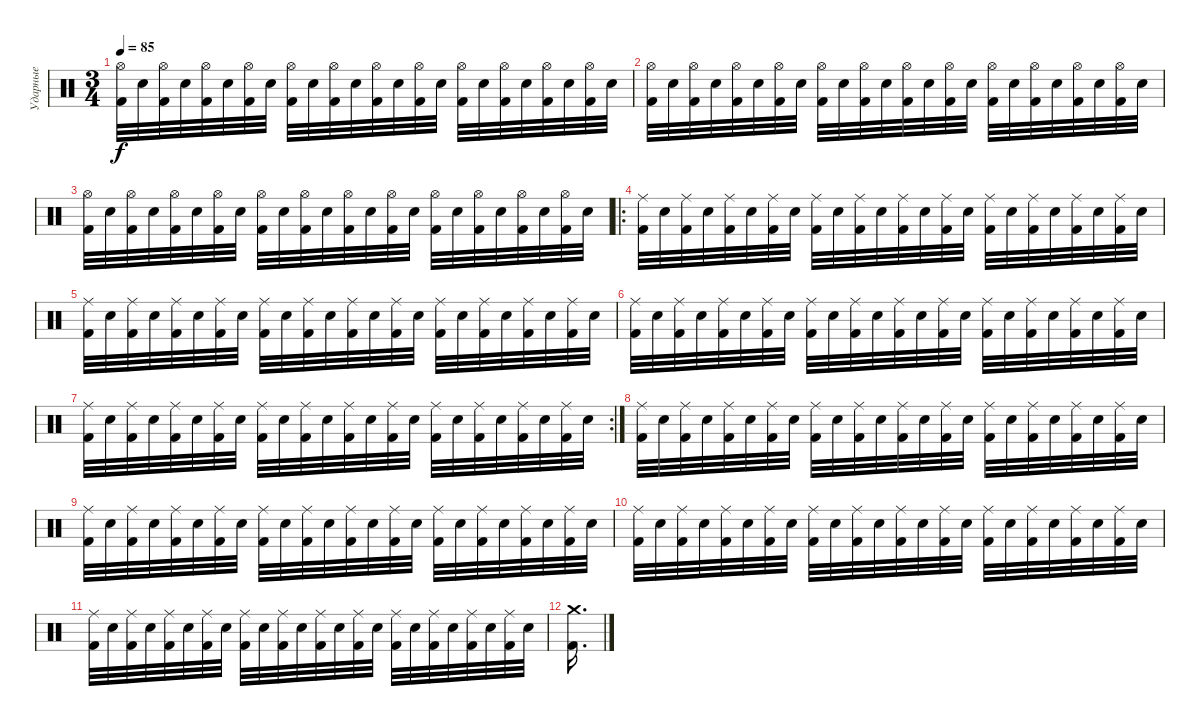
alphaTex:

\track ("Ударные" "Ударные") {instrument percussion}
\staff {score}
\articulation defaults
\ts (3 4)
\tempo 85
\clef neutral
\ks c
("Kick (hit) 2" "Hi-Hat (open)").32{dy f} "Electric Snare (hit)".32 ("Kick (hit) 2" "Hi-Hat (open)").32 "Electric Snare (hit)".32 ("Kick (hit) 2" "Hi-Hat (open)").32 "Electric Snare (hit)".32 ("Kick (hit) 2" "Hi-Hat (open)").32 "Electric Snare (hit)".32 ("Kick (hit) 2" "Hi-Hat (open)").32 "Electric Snare (hit)".32 ("Kick (hit) 2" "Hi-Hat (open)").32 "Electric Snare (hit)".32 ("Kick (hit) 2" "Hi-Hat (open)").32 "Electric Snare (hit)".32 ("Kick (hit) 2" "Hi-Hat (open)").32 "Electric Snare (hit)".32 ("Kick (hit) 2" "Hi-Hat (open)").32 "Electric Snare (hit)".32 ("Kick (hit) 2" "Hi-Hat (open)").32 "Electric Snare (hit)".32 ("Kick (hit) 2" "Hi-Hat (open)").32 "Electric Snare (hit)".32 ("Kick (hit) 2" "Hi-Hat (open)").32 "Electric Snare (hit)".32 |
("Kick (hit) 2" "Hi-Hat (open)").32 "Electric Snare (hit)".32 ("Kick (hit) 2" "Hi-Hat (open)").32 "Electric Snare (hit)".32 ("Kick (hit) 2" "Hi-Hat (open)").32 "Electric Snare (hit)".32 ("Kick (hit) 2" "Hi-Hat (open)").32 "Electric Snare (hit)".32 ("Kick (hit) 2" "Hi-Hat (open)").32 "Electric Snare (hit)".32 ("Kick (hit) 2" "Hi-Hat (open)").32 "Electric Snare (hit)".32 ("Kick (hit) 2" "Hi-Hat (open)").32 "Electric Snare (hit)".32 ("Kick (hit) 2" "Hi-Hat (open)").32 "Electric Snare (hit)".32 ("Kick (hit) 2" "Hi-Hat (open)").32 "Electric Snare (hit)".32 ("Kick (hit) 2" "Hi-Hat (open)").32 "Electric Snare (hit)".32 ("Kick (hit) 2" "Hi-Hat (open)").32 "Electric Snare (hit)".32 ("Kick (hit) 2" "Hi-Hat (open)").32 "Electric Snare (hit)".32 |
("Kick (hit) 2" "Hi-Hat (open)").32 "Electric Snare (hit)".32 ("Kick (hit) 2" "Hi-Hat (open)").32 "Electric Snare (hit)".32 ("Kick (hit) 2" "Hi-Hat (open)").32 "Electric Snare (hit)".32 ("Kick (hit) 2" "Hi-Hat (open)").32 "Electric Snare (hit)".32 ("Kick (hit) 2" "Hi-Hat (open)").32 "Electric Snare (hit)".32 ("Kick (hit) 2" "Hi-Hat (open)").32 "Electric Snare (hit)".32 ("Kick (hit) 2" "Hi-Hat (open)").32 "Electric Snare (hit)".32 ("Kick (hit) 2" "Hi-Hat (open)").32 "Electric Snare (hit)".32 ("Kick (hit) 2" "Hi-Hat (open)").32 "Electric Snare (hit)".32 ("Kick (hit) 2" "Hi-Hat (open)").32 "Electric Snare (hit)".32 ("Kick (hit) 2" "Hi-Hat (open)").32 "Electric Snare (hit)".32 ("Kick (hit) 2" "Hi-Hat (open)").32 "Electric Snare (hit)".32 |
\ro
("Kick (hit) 2" "Ride (middle)").32 "Electric Snare (hit)".32 ("Kick (hit) 2" "Ride (middle)").32 "Electric Snare (hit)".32 ("Kick (hit) 2" "Ride (middle)").32 "Electric Snare (hit)".32 ("Kick (hit) 2" "Ride (middle)").32 "Electric Snare (hit)".32 ("Kick (hit) 2" "Ride (middle)").32 "Electric Snare (hit)".32 ("Kick (hit) 2" "Ride (middle)").32 "Electric Snare (hit)".32 ("Kick (hit) 2" "Ride (middle)").32 "Electric Snare (hit)".32 ("Kick (hit) 2" "Ride (middle)").32 "Electric Snare (hit)".32 ("Kick (hit) 2" "Ride (middle)").32 "Electric Snare (hit)".32 ("Kick (hit) 2" "Ride (middle)").32 "Electric Snare (hit)".32 ("Kick (hit) 2" "Ride (middle)").32 "Electric Snare (hit)".32 ("Kick (hit) 2" "Ride (middle)").32 "Electric Snare (hit)".32 |
("Kick (hit) 2" "Ride (middle)").32 "Electric Snare (hit)".32 ("Kick (hit) 2" "Ride (middle)").32 "Electric Snare (hit)".32 ("Kick (hit) 2" "Ride (middle)").32 "Electric Snare (hit)".32 ("Kick (hit) 2" "Ride (middle)").32 "Electric Snare (hit)".32 ("Kick (hit) 2" "Ride (middle)").32 "Electric Snare (hit)".32 ("Kick (hit) 2" "Ride (middle)").32 "Electric Snare (hit)".32 ("Kick (hit) 2" "Ride (middle)").32 "Electric Snare (hit)".32 ("Kick (hit) 2" "Ride (middle)").32 "Electric Snare (hit)".32 ("Kick (hit) 2" "Ride (middle)").32 "Electric Snare (hit)".32 ("Kick (hit) 2" "Ride (middle)").32 "Electric Snare (hit)".32 ("Kick (hit) 2" "Ride (middle)").32 "Electric Snare (hit)".32 ("Kick (hit) 2" "Ride (middle)").32 "Electric Snare (hit)".32 |
("Kick (hit) 2" "Ride (middle)").32 "Electric Snare (hit)".32 ("Kick (hit) 2" "Ride (middle)").32 "Electric Snare (hit)".32 ("Kick (hit) 2" "Ride (middle)").32 "Electric Snare (hit)".32 ("Kick (hit) 2" "Ride (middle)").32 "Electric Snare (hit)".32 ("Kick (hit) 2" "Ride (middle)").32 "Electric Snare (hit)".32 ("Kick (hit) 2" "Ride (middle)").32 "Electric Snare (hit)".32 ("Kick (hit) 2" "Ride (middle)").32 "Electric Snare (hit)".32 ("Kick (hit) 2" "Ride (middle)").32 "Electric Snare (hit)".32 ("Kick (hit) 2" "Ride (middle)").32 "Electric Snare (hit)".32 ("Kick (hit) 2" "Ride (middle)").32 "Electric Snare (hit)".32 ("Kick (hit) 2" "Ride (middle)").32 "Electric Snare (hit)".32 ("Kick (hit) 2" "Ride (middle)").32 "Electric Snare (hit)".32 |
\rc 2
("Kick (hit) 2" "Ride (middle)").32 "Electric Snare (hit)".32 ("Kick (hit) 2" "Ride (middle)").32 "Electric Snare (hit)".32 ("Kick (hit) 2" "Ride (middle)").32 "Electric Snare (hit)".32 ("Kick (hit) 2" "Ride (middle)").32 "Electric Snare (hit)".32 ("Kick (hit) 2" "Ride (middle)").32 "Electric Snare (hit)".32 ("Kick (hit) 2" "Ride (middle)").32 "Electric Snare (hit)".32 ("Kick (hit) 2" "Ride (middle)").32 "Electric Snare (hit)".32 ("Kick (hit) 2" "Ride (middle)").32 "Electric Snare (hit)".32 ("Kick (hit) 2" "Ride (middle)").32 "Electric Snare (hit)".32 ("Kick (hit) 2" "Ride (middle)").32 "Electric Snare (hit)".32 ("Kick (hit) 2" "Ride (middle)").32 "Electric Snare (hit)".32 ("Kick (hit) 2" "Ride (middle)").32 "Electric Snare (hit)".32 |
("Kick (hit) 2" "Ride (middle)").32 "Electric Snare (hit)".32 ("Kick (hit) 2" "Ride (middle)").32 "Electric Snare (hit)".32 ("Kick (hit) 2" "Ride (middle)").32 "Electric Snare (hit)".32 ("Kick (hit) 2" "Ride (middle)").32 "Electric Snare (hit)".32 ("Kick (hit) 2" "Ride (middle)").32 "Electric Snare (hit)".32 ("Kick (hit) 2" "Ride (middle)").32 "Electric Snare (hit)".32 ("Kick (hit) 2" "Ride (middle)").32 "Electric Snare (hit)".32 ("Kick (hit) 2" "Ride (middle)").32 "Electric Snare (hit)".32 ("Kick (hit) 2" "Ride (middle)").32 "Electric Snare (hit)".32 ("Kick (hit) 2" "Ride (middle)").32 "Electric Snare (hit)".32 ("Kick (hit) 2" "Ride (middle)").32 "Electric Snare (hit)".32 ("Kick (hit) 2" "Ride (middle)").32 "Electric Snare (hit)".32 |
("Kick (hit) 2" "Ride (middle)").32 "Electric Snare (hit)".32 ("Kick (hit) 2" "Ride (middle)").32 "Electric Snare (hit)".32 ("Kick (hit) 2" "Ride (middle)").32 "Electric Snare (hit)".32 ("Kick (hit) 2" "Ride (middle)").32 "Electric Snare (hit)".32 ("Kick (hit) 2" "Ride (middle)").32 "Electric Snare (hit)".32 ("Kick (hit) 2" "Ride (middle)").32 "Electric Snare (hit)".32 ("Kick (hit) 2" "Ride (middle)").32 "Electric Snare (hit)".32 ("Kick (hit) 2" "Ride (middle)").32 "Electric Snare (hit)".32 ("Kick (hit) 2" "Ride (middle)").32 "Electric Snare (hit)".32 ("Kick (hit) 2" "Ride (middle)").32 "Electric Snare (hit)".32 ("Kick (hit) 2" "Ride (middle)").32 "Electric Snare (hit)".32 ("Kick (hit) 2" "Ride (middle)").32 "Electric Snare (hit)".32 |
("Kick (hit) 2" "Ride (middle)").32 "Electric Snare (hit)".32 ("Kick (hit) 2" "Ride (middle)").32 "Electric Snare (hit)".32 ("Kick (hit) 2" "Ride (middle)").32 "Electric Snare (hit)".32 ("Kick (hit) 2" "Ride (middle)").32 "Electric Snare (hit)".32 ("Kick (hit) 2" "Ride (middle)").32 "Electric Snare (hit)".32 ("Kick (hit) 2" "Ride (middle)").32 "Electric Snare (hit)".32 ("Kick (hit) 2" "Ride (middle)").32 "Electric Snare (hit)".32 ("Kick (hit) 2" "Ride (middle)").32 "Electric Snare (hit)".32 ("Kick (hit) 2" "Ride (middle)").32 "Electric Snare (hit)".32 ("Kick (hit) 2" "Ride (middle)").32 "Electric Snare (hit)".32 ("Kick (hit) 2" "Ride (middle)").32 "Electric Snare (hit)".32 ("Kick (hit) 2" "Ride (middle)").32 "Electric Snare (hit)".32 |
("Kick (hit) 2" "Ride (middle)").32 "Electric Snare (hit)".32 ("Kick (hit) 2" "Ride (middle)").32 "Electric Snare (hit)".32 ("Kick (hit) 2" "Ride (middle)").32 "Electric Snare (hit)".32 ("Kick (hit) 2" "Ride (middle)").32 "Electric Snare (hit)".32 ("Kick (hit) 2" "Ride (middle)").32 "Electric Snare (hit)".32 ("Kick (hit) 2" "Ride (middle)").32 "Electric Snare (hit)".32 ("Kick (hit) 2" "Ride (middle)").32 "Electric Snare (hit)".32 ("Kick (hit) 2" "Ride (middle)").32 "Electric Snare (hit)".32 ("Kick (hit) 2" "Ride (middle)").32 "Electric Snare (hit)".32 ("Kick (hit) 2" "Ride (middle)").32 "Electric Snare (hit)".32 ("Kick (hit) 2" "Ride (middle)").32 "Electric Snare (hit)".32 ("Kick (hit) 2" "Ride (middle)").32 "Electric Snare (hit)".32 |
("Kick (hit) 2" "Crash medium (hit)").16{d}
